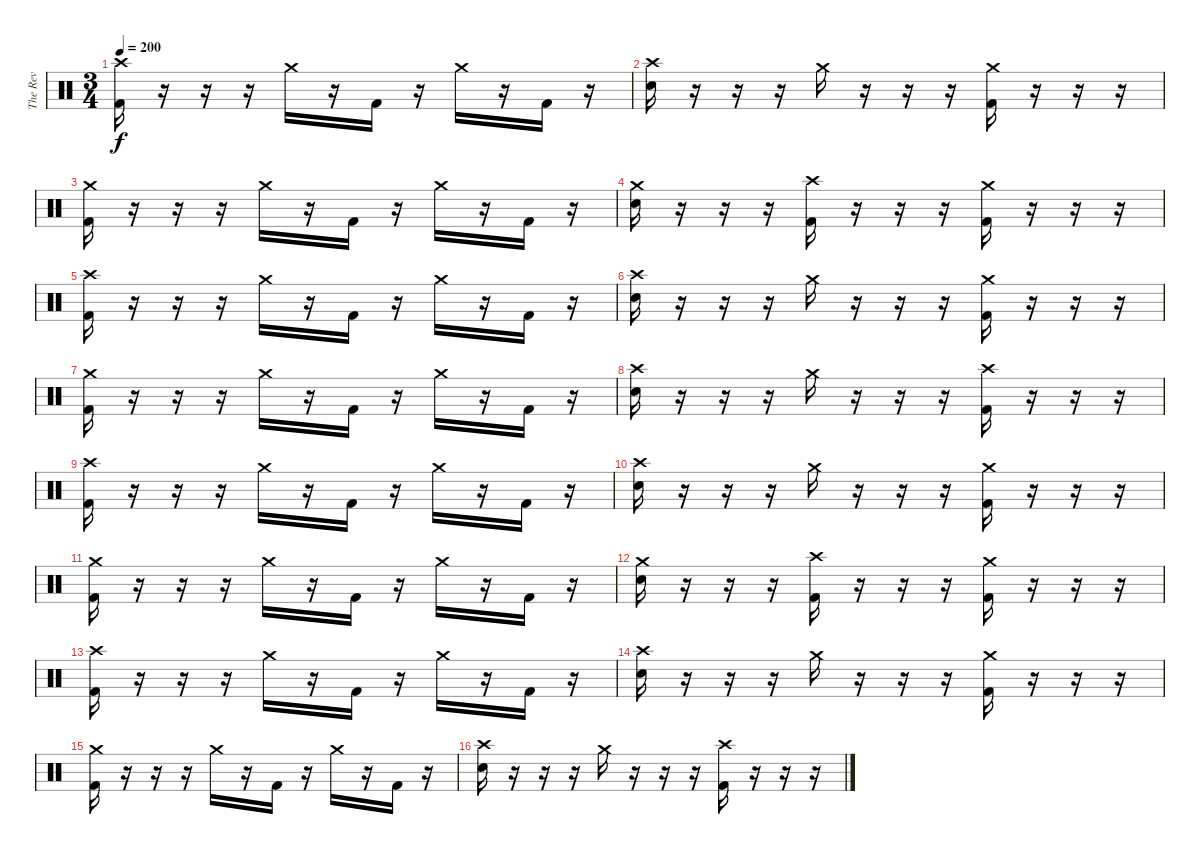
\track ("The Rev" "The Rev") {instrument percussion}
\staff {score}
\articulation defaults
\ts (3 4)
\tempo 200
\clef neutral
\ks c
("Crash high (hit)" "Kick (hit) 2").16{dy f} r.16 r.16 r.16 "Crash medium (hit)".16 r.16 "Kick (hit) 2".16 r.16 "Crash medium (hit)".16 r.16 "Kick (hit) 2".16 r.16 |
("Crash high (hit)" "Electric Snare (hit)").16 r.16 r.16 r.16 "Crash medium (hit)".16 r.16 r.16 r.16 ("Crash medium (hit)" "Kick (hit) 2").16 r.16 r.16 r.16 |
("Crash medium (hit)" "Kick (hit) 2").16 r.16 r.16 r.16 "Crash medium (hit)".16 r.16 "Kick (hit) 2".16 r.16 "Crash medium (hit)".16 r.16 "Kick (hit) 2".16 r.16 |
("Crash medium (hit)" "Electric Snare (hit)").16 r.16 r.16 r.16 ("Crash high (hit)" "Kick (hit) 2").16 r.16 r.16 r.16 ("Crash medium (hit)" "Kick (hit) 2").16 r.16 r.16 r.16 |
("Crash high (hit)" "Kick (hit) 2").16 r.16 r.16 r.16 "Crash medium (hit)".16 r.16 "Kick (hit) 2".16 r.16 "Crash medium (hit)".16 r.16 "Kick (hit) 2".16 r.16 |
("Crash high (hit)" "Electric Snare (hit)").16 r.16 r.16 r.16 "Crash medium (hit)".16 r.16 r.16 r.16 ("Crash medium (hit)" "Kick (hit) 2").16 r.16 r.16 r.16 |
("Crash medium (hit)" "Kick (hit) 2").16 r.16 r.16 r.16 "Crash medium (hit)".16 r.16 "Kick (hit) 2".16 r.16 "Crash medium (hit)".16 r.16 "Kick (hit) 2".16 r.16 |
("Crash high (hit)" "Electric Snare (hit)").16 r.16 r.16 r.16 "Crash medium (hit)".16 r.16 r.16 r.16 ("Crash high (hit)" "Kick (hit) 2").16 r.16 r.16 r.16 |
("Crash high (hit)" "Kick (hit) 2").16 r.16 r.16 r.16 "Crash medium (hit)".16 r.16 "Kick (hit) 2".16 r.16 "Crash medium (hit)".16 r.16 "Kick (hit) 2".16 r.16 |
("Crash high (hit)" "Electric Snare (hit)").16 r.16 r.16 r.16 "Crash medium (hit)".16 r.16 r.16 r.16 ("Crash medium (hit)" "Kick (hit) 2").16 r.16 r.16 r.16 |
("Crash medium (hit)" "Kick (hit) 2").16 r.16 r.16 r.16 "Crash medium (hit)".16 r.16 "Kick (hit) 2".16 r.16 "Crash medium (hit)".16 r.16 "Kick (hit) 2".16 r.16 |
("Crash medium (hit)" "Electric Snare (hit)").16 r.16 r.16 r.16 ("Crash high (hit)" "Kick (hit) 2").16 r.16 r.16 r.16 ("Crash medium (hit)" "Kick (hit) 2").16 r.16 r.16 r.16 |
("Crash high (hit)" "Kick (hit) 2").16 r.16 r.16 r.16 "Crash medium (hit)".16 r.16 "Kick (hit) 2".16 r.16 "Crash medium (hit)".16 r.16 "Kick (hit) 2".16 r.16 |
("Crash high (hit)" "Electric Snare (hit)").16 r.16 r.16 r.16 "Crash medium (hit)".16 r.16 r.16 r.16 ("Crash medium (hit)" "Kick (hit) 2").16 r.16 r.16 r.16 |
("Crash medium (hit)" "Kick (hit) 2").16 r.16 r.16 r.16 "Crash medium (hit)".16 r.16 "Kick (hit) 2".16 r.16 "Crash medium (hit)".16 r.16 "Kick (hit) 2".16 r.16 |
("Crash high (hit)" "Electric Snare (hit)").16 r.16 r.16 r.16 "Crash medium (hit)".16 r.16 r.16 r.16 ("Crash high (hit)" "Kick (hit) 2").16 r.16 r.16 r.16
